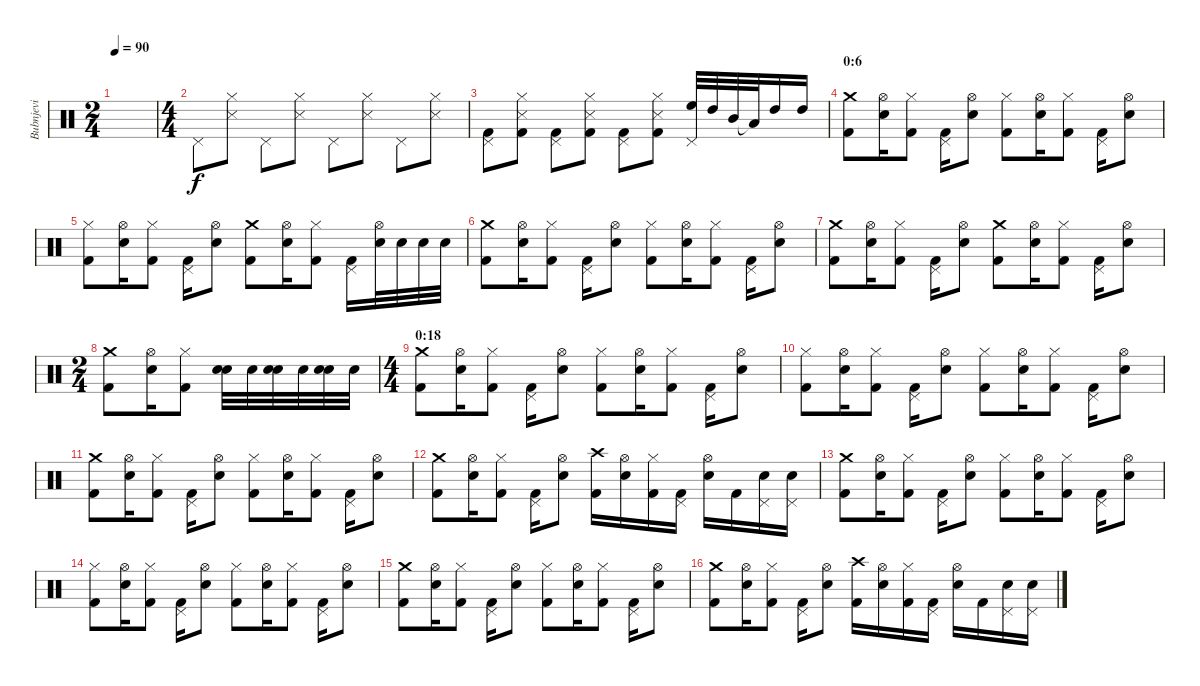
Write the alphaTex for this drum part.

\track ("Bubnjevi" "Bubnjevi") {instrument percussion}
\staff {score}
\articulation defaults
\ts (2 4)
\tempo 90
\clef neutral
\ks c
|
\ts (4 4)
"Pedal Hi-Hat (hit)".8 ("Hi-Hat (closed)" "Snare (side stick) 3").8 "Pedal Hi-Hat (hit)".8 ("Hi-Hat (closed)" "Snare (side stick) 3").8 "Pedal Hi-Hat (hit)".8 ("Hi-Hat (closed)" "Snare (side stick) 3").8 "Pedal Hi-Hat (hit)".8 ("Hi-Hat (closed)" "Snare (side stick) 3").8 |
("Pedal Hi-Hat (hit)" "Kick (hit) 2").8 ("Hi-Hat (closed)" "Snare (side stick) 3" "Kick (hit) 2").8 ("Pedal Hi-Hat (hit)" "Kick (hit) 2").8 ("Hi-Hat (closed)" "Snare (side stick) 3" "Kick (hit) 2").8 ("Pedal Hi-Hat (hit)" "Kick (hit) 2").8 ("Hi-Hat (closed)" "Snare (side stick) 3" "Kick (hit) 2").8 ("Pedal Hi-Hat (hit)" "High Floor Tom (hit)").32 "High Tom (hit)".32 "Mid Tom (hit)".32 "Low Tom (hit)"{t}.32 "High Tom (hit)".16 "High Tom (hit)".16 |
\section ("" "0:6")
("Crash medium (hit)" "Kick (hit) 2").8 ("Hi-Hat (open)" "Snare (hit) 2").16 ("Hi-Hat (closed)" "Kick (hit) 2").8 ("Pedal Hi-Hat (hit)" "Kick (hit) 2").16 ("Hi-Hat (open)" "Snare (hit) 2").8 ("Hi-Hat (closed)" "Kick (hit) 2").8 ("Hi-Hat (open)" "Snare (hit) 2").16 ("Hi-Hat (closed)" "Kick (hit) 2").8 ("Pedal Hi-Hat (hit)" "Kick (hit) 2").16 ("Hi-Hat (open)" "Snare (hit) 2").8 |
("Hi-Hat (closed)" "Kick (hit) 2").8 ("Hi-Hat (open)" "Snare (hit) 2").16 ("Hi-Hat (closed)" "Kick (hit) 2").8 ("Pedal Hi-Hat (hit)" "Kick (hit) 2").16 ("Hi-Hat (open)" "Snare (hit) 2").8 ("Crash medium (hit)" "Kick (hit) 2").8 ("Hi-Hat (open)" "Snare (hit) 2").16 ("Hi-Hat (closed)" "Kick (hit) 2").8 ("Pedal Hi-Hat (hit)" "Kick (hit) 2").16 ("Hi-Hat (open)" "Snare (hit) 2").32 "Snare (hit) 2".32 "Snare (hit) 2".32 "Snare (hit) 2".32 |
("Crash medium (hit)" "Kick (hit) 2").8 ("Hi-Hat (open)" "Snare (hit) 2").16 ("Hi-Hat (closed)" "Kick (hit) 2").8 ("Pedal Hi-Hat (hit)" "Kick (hit) 2").16 ("Hi-Hat (open)" "Snare (hit) 2").8 ("Hi-Hat (closed)" "Kick (hit) 2").8 ("Hi-Hat (open)" "Snare (hit) 2").16 ("Hi-Hat (closed)" "Kick (hit) 2").8 ("Pedal Hi-Hat (hit)" "Kick (hit) 2").16 ("Hi-Hat (open)" "Snare (hit) 2").8 |
("Crash medium (hit)" "Kick (hit) 2").8 ("Hi-Hat (open)" "Snare (hit) 2").16 ("Hi-Hat (closed)" "Kick (hit) 2").8 ("Pedal Hi-Hat (hit)" "Kick (hit) 2").16 ("Hi-Hat (open)" "Snare (hit) 2").8 ("Crash medium (hit)" "Kick (hit) 2").8 ("Hi-Hat (open)" "Snare (hit) 2").16 ("Hi-Hat (closed)" "Kick (hit) 2").8 ("Pedal Hi-Hat (hit)" "Kick (hit) 2").16 ("Hi-Hat (open)" "Snare (hit) 2").8 |
\ts (2 4)
("Crash medium (hit)" "Kick (hit) 2").8 ("Hi-Hat (open)" "Snare (hit) 2").16 ("Hi-Hat (closed)" "Kick (hit) 2").8 ("Snare (hit) 2" "Snare (hit) 2").32 "Snare (hit) 2".32 ("Snare (hit) 2" "Snare (hit) 2").32 "Snare (hit) 2".32 ("Snare (hit) 2" "Snare (hit) 2").32 "Snare (hit) 2".32 |
\ts (4 4)
\section ("" "0:18")
("Crash medium (hit)" "Kick (hit) 2").8 ("Hi-Hat (open)" "Snare (hit) 2").16 ("Hi-Hat (closed)" "Kick (hit) 2").8 ("Pedal Hi-Hat (hit)" "Kick (hit) 2").16 ("Hi-Hat (open)" "Snare (hit) 2").8 ("Hi-Hat (closed)" "Kick (hit) 2").8 ("Hi-Hat (open)" "Snare (hit) 2").16 ("Hi-Hat (closed)" "Kick (hit) 2").8 ("Pedal Hi-Hat (hit)" "Kick (hit) 2").16 ("Hi-Hat (open)" "Snare (hit) 2").8 |
("Hi-Hat (closed)" "Kick (hit) 2").8 ("Hi-Hat (open)" "Snare (hit) 2").16 ("Hi-Hat (closed)" "Kick (hit) 2").8 ("Pedal Hi-Hat (hit)" "Kick (hit) 2").16 ("Hi-Hat (open)" "Snare (hit) 2").8 ("Hi-Hat (closed)" "Kick (hit) 2").8 ("Hi-Hat (open)" "Snare (hit) 2").16 ("Hi-Hat (closed)" "Kick (hit) 2").8 ("Pedal Hi-Hat (hit)" "Kick (hit) 2").16 ("Hi-Hat (open)" "Snare (hit) 2").8 |
("Crash medium (hit)" "Kick (hit) 2").8 ("Hi-Hat (open)" "Snare (hit) 2").16 ("Hi-Hat (closed)" "Kick (hit) 2").8 ("Pedal Hi-Hat (hit)" "Kick (hit) 2").16 ("Hi-Hat (open)" "Snare (hit) 2").8 ("Hi-Hat (closed)" "Kick (hit) 2").8 ("Hi-Hat (open)" "Snare (hit) 2").16 ("Hi-Hat (closed)" "Kick (hit) 2").8 ("Pedal Hi-Hat (hit)" "Kick (hit) 2").16 ("Hi-Hat (open)" "Snare (hit) 2").8 |
("Crash medium (hit)" "Kick (hit) 2").8 ("Hi-Hat (open)" "Snare (hit) 2").16 ("Hi-Hat (closed)" "Kick (hit) 2").8 ("Pedal Hi-Hat (hit)" "Kick (hit) 2").16 ("Hi-Hat (open)" "Snare (hit) 2").8 ("Crash high (hit)" "Kick (hit) 2").16 ("Hi-Hat (open)" "Snare (hit) 2").16 ("Hi-Hat (closed)" "Kick (hit) 2").16 ("Pedal Hi-Hat (hit)" "Kick (hit) 2").16 ("Hi-Hat (open)" "Snare (hit) 2").16 "Kick (hit) 2".16 ("Pedal Hi-Hat (hit)" "Snare (hit) 2").16 ("Pedal Hi-Hat (hit)" "Snare (hit) 2").16 |
("Crash medium (hit)" "Kick (hit) 2").8 ("Hi-Hat (open)" "Snare (hit) 2").16 ("Hi-Hat (closed)" "Kick (hit) 2").8 ("Pedal Hi-Hat (hit)" "Kick (hit) 2").16 ("Hi-Hat (open)" "Snare (hit) 2").8 ("Hi-Hat (closed)" "Kick (hit) 2").8 ("Hi-Hat (open)" "Snare (hit) 2").16 ("Hi-Hat (closed)" "Kick (hit) 2").8 ("Pedal Hi-Hat (hit)" "Kick (hit) 2").16 ("Hi-Hat (open)" "Snare (hit) 2").8 |
("Hi-Hat (closed)" "Kick (hit) 2").8 ("Hi-Hat (open)" "Snare (hit) 2").16 ("Hi-Hat (closed)" "Kick (hit) 2").8 ("Pedal Hi-Hat (hit)" "Kick (hit) 2").16 ("Hi-Hat (open)" "Snare (hit) 2").8 ("Hi-Hat (closed)" "Kick (hit) 2").8 ("Hi-Hat (open)" "Snare (hit) 2").16 ("Hi-Hat (closed)" "Kick (hit) 2").8 ("Pedal Hi-Hat (hit)" "Kick (hit) 2").16 ("Hi-Hat (open)" "Snare (hit) 2").8 |
("Crash medium (hit)" "Kick (hit) 2").8 ("Hi-Hat (open)" "Snare (hit) 2").16 ("Hi-Hat (closed)" "Kick (hit) 2").8 ("Pedal Hi-Hat (hit)" "Kick (hit) 2").16 ("Hi-Hat (open)" "Snare (hit) 2").8 ("Hi-Hat (closed)" "Kick (hit) 2").8 ("Hi-Hat (open)" "Snare (hit) 2").16 ("Hi-Hat (closed)" "Kick (hit) 2").8 ("Pedal Hi-Hat (hit)" "Kick (hit) 2").16 ("Hi-Hat (open)" "Snare (hit) 2").8 |
("Crash medium (hit)" "Kick (hit) 2").8 ("Hi-Hat (open)" "Snare (hit) 2").16 ("Hi-Hat (closed)" "Kick (hit) 2").8 ("Pedal Hi-Hat (hit)" "Kick (hit) 2").16 ("Hi-Hat (open)" "Snare (hit) 2").8 ("Crash high (hit)" "Kick (hit) 2").16 ("Hi-Hat (open)" "Snare (hit) 2").16 ("Hi-Hat (closed)" "Kick (hit) 2").16 ("Pedal Hi-Hat (hit)" "Kick (hit) 2").16 ("Hi-Hat (open)" "Snare (hit) 2").16 "Kick (hit) 2".16 ("Pedal Hi-Hat (hit)" "Snare (hit) 2").16 ("Pedal Hi-Hat (hit)" "Snare (hit) 2").16
